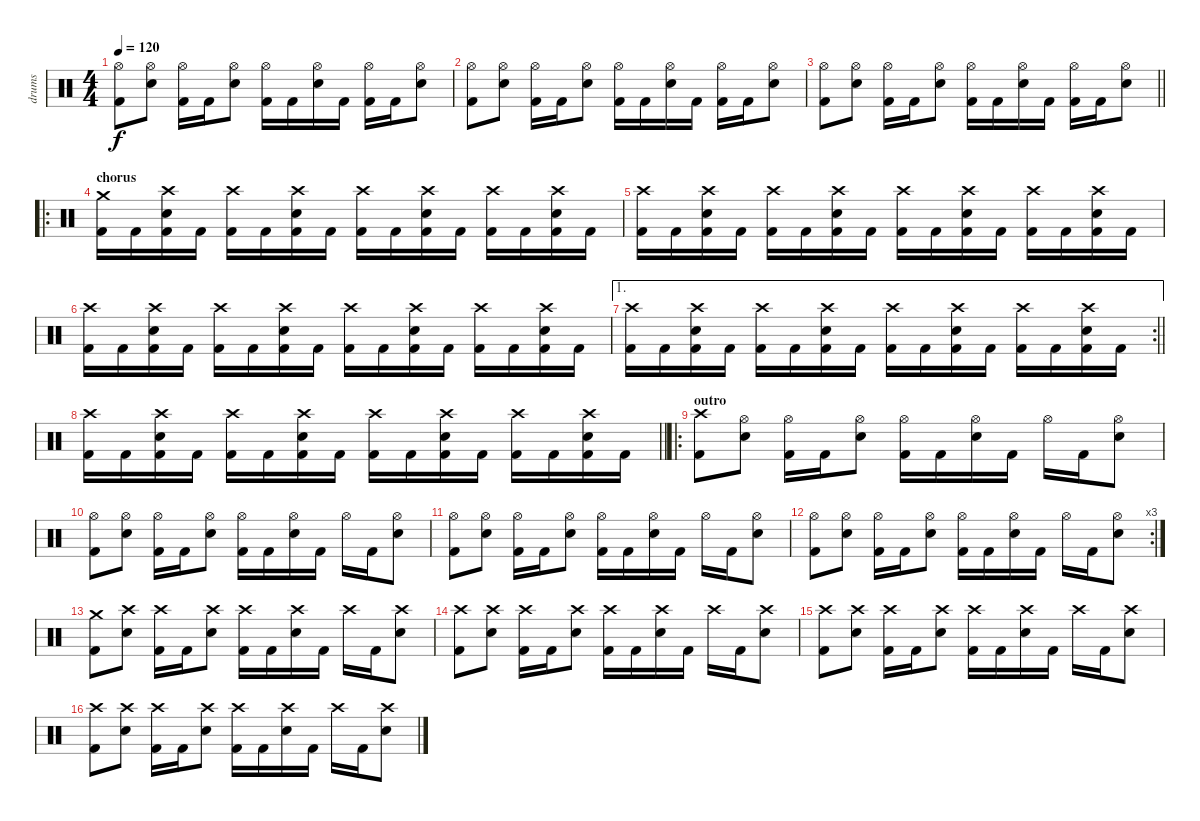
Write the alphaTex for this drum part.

\track ("drums" "drums") {instrument percussion}
\staff {score}
\articulation defaults
\ts (4 4)
\tempo 120
\clef neutral
\ks c
("Hi-Hat (open)" "Kick (hit) 2").8{dy f} ("Hi-Hat (open)" "Snare (hit) 2").8 ("Hi-Hat (open)" "Kick (hit) 2").16 "Kick (hit) 2".16 ("Hi-Hat (open)" "Snare (hit) 2").8 ("Hi-Hat (open)" "Kick (hit) 2").16 "Kick (hit) 2".16 ("Hi-Hat (open)" "Snare (hit) 2").16 "Kick (hit) 2".16 ("Hi-Hat (open)" "Kick (hit) 2").16 "Kick (hit) 2".16 ("Hi-Hat (open)" "Snare (hit) 2").8 |
("Hi-Hat (open)" "Kick (hit) 2").8 ("Hi-Hat (open)" "Snare (hit) 2").8 ("Hi-Hat (open)" "Kick (hit) 2").16 "Kick (hit) 2".16 ("Hi-Hat (open)" "Snare (hit) 2").8 ("Hi-Hat (open)" "Kick (hit) 2").16 "Kick (hit) 2".16 ("Hi-Hat (open)" "Snare (hit) 2").16 "Kick (hit) 2".16 ("Hi-Hat (open)" "Kick (hit) 2").16 "Kick (hit) 2".16 ("Hi-Hat (open)" "Snare (hit) 2").8 |
\barLineRight lightlight
("Hi-Hat (open)" "Kick (hit) 2").8 ("Hi-Hat (open)" "Snare (hit) 2").8 ("Hi-Hat (open)" "Kick (hit) 2").16 "Kick (hit) 2".16 ("Hi-Hat (open)" "Snare (hit) 2").8 ("Hi-Hat (open)" "Kick (hit) 2").16 "Kick (hit) 2".16 ("Hi-Hat (open)" "Snare (hit) 2").16 "Kick (hit) 2".16 ("Hi-Hat (open)" "Kick (hit) 2").16 "Kick (hit) 2".16 ("Hi-Hat (open)" "Snare (hit) 2").8 |
\ro
\section ("" "chorus")
("Crash medium (hit)" "Kick (hit) 2").16 "Kick (hit) 2".16 ("Crash high (hit)" "Snare (hit) 2" "Kick (hit) 2").16 "Kick (hit) 2".16 ("Crash high (hit)" "Kick (hit) 2").16 "Kick (hit) 2".16 ("Crash high (hit)" "Snare (hit) 2" "Kick (hit) 2").16 "Kick (hit) 2".16 ("Crash high (hit)" "Kick (hit) 2").16 "Kick (hit) 2".16 ("Crash high (hit)" "Snare (hit) 2" "Kick (hit) 2").16 "Kick (hit) 2".16 ("Crash high (hit)" "Kick (hit) 2").16 "Kick (hit) 2".16 ("Crash high (hit)" "Snare (hit) 2" "Kick (hit) 2").16 "Kick (hit) 2".16 |
("Crash high (hit)" "Kick (hit) 2").16 "Kick (hit) 2".16 ("Crash high (hit)" "Snare (hit) 2" "Kick (hit) 2").16 "Kick (hit) 2".16 ("Crash high (hit)" "Kick (hit) 2").16 "Kick (hit) 2".16 ("Crash high (hit)" "Snare (hit) 2" "Kick (hit) 2").16 "Kick (hit) 2".16 ("Crash high (hit)" "Kick (hit) 2").16 "Kick (hit) 2".16 ("Crash high (hit)" "Snare (hit) 2" "Kick (hit) 2").16 "Kick (hit) 2".16 ("Crash high (hit)" "Kick (hit) 2").16 "Kick (hit) 2".16 ("Crash high (hit)" "Snare (hit) 2" "Kick (hit) 2").16 "Kick (hit) 2".16 |
("Crash high (hit)" "Kick (hit) 2").16 "Kick (hit) 2".16 ("Crash high (hit)" "Snare (hit) 2" "Kick (hit) 2").16 "Kick (hit) 2".16 ("Crash high (hit)" "Kick (hit) 2").16 "Kick (hit) 2".16 ("Crash high (hit)" "Snare (hit) 2" "Kick (hit) 2").16 "Kick (hit) 2".16 ("Crash high (hit)" "Kick (hit) 2").16 "Kick (hit) 2".16 ("Crash high (hit)" "Snare (hit) 2" "Kick (hit) 2").16 "Kick (hit) 2".16 ("Crash high (hit)" "Kick (hit) 2").16 "Kick (hit) 2".16 ("Crash high (hit)" "Snare (hit) 2" "Kick (hit) 2").16 "Kick (hit) 2".16 |
\ae 1
\rc 2
\barLineRight lightlight
("Crash high (hit)" "Kick (hit) 2").16 "Kick (hit) 2".16 ("Crash high (hit)" "Snare (hit) 2" "Kick (hit) 2").16 "Kick (hit) 2".16 ("Crash high (hit)" "Kick (hit) 2").16 "Kick (hit) 2".16 ("Crash high (hit)" "Snare (hit) 2" "Kick (hit) 2").16 "Kick (hit) 2".16 ("Crash high (hit)" "Kick (hit) 2").16 "Kick (hit) 2".16 ("Crash high (hit)" "Snare (hit) 2" "Kick (hit) 2").16 "Kick (hit) 2".16 ("Crash high (hit)" "Kick (hit) 2").16 "Kick (hit) 2".16 ("Crash high (hit)" "Snare (hit) 2" "Kick (hit) 2").16 "Kick (hit) 2".16 |
\barLineRight lightlight
("Crash high (hit)" "Kick (hit) 2").16 "Kick (hit) 2".16 ("Crash high (hit)" "Snare (hit) 2" "Kick (hit) 2").16 "Kick (hit) 2".16 ("Crash high (hit)" "Kick (hit) 2").16 "Kick (hit) 2".16 ("Crash high (hit)" "Snare (hit) 2" "Kick (hit) 2").16 "Kick (hit) 2".16 ("Crash high (hit)" "Kick (hit) 2").16 "Kick (hit) 2".16 ("Crash high (hit)" "Snare (hit) 2" "Kick (hit) 2").16 "Kick (hit) 2".16 ("Crash high (hit)" "Kick (hit) 2").16 "Kick (hit) 2".16 ("Crash high (hit)" "Snare (hit) 2" "Kick (hit) 2").16 "Kick (hit) 2".16 |
\ro
\section ("" "outro")
("Crash high (hit)" "Kick (hit) 2").8 ("Hi-Hat (open)" "Snare (hit) 2").8 ("Hi-Hat (open)" "Kick (hit) 2").16 "Kick (hit) 2".16 ("Hi-Hat (open)" "Snare (hit) 2").8 ("Hi-Hat (open)" "Kick (hit) 2").16 "Kick (hit) 2".16 ("Hi-Hat (open)" "Snare (hit) 2").16 "Kick (hit) 2".16 "Hi-Hat (open)".16 "Kick (hit) 2".16 ("Hi-Hat (open)" "Snare (hit) 2").8 |
("Hi-Hat (open)" "Kick (hit) 2").8 ("Hi-Hat (open)" "Snare (hit) 2").8 ("Hi-Hat (open)" "Kick (hit) 2").16 "Kick (hit) 2".16 ("Hi-Hat (open)" "Snare (hit) 2").8 ("Hi-Hat (open)" "Kick (hit) 2").16 "Kick (hit) 2".16 ("Hi-Hat (open)" "Snare (hit) 2").16 "Kick (hit) 2".16 "Hi-Hat (open)".16 "Kick (hit) 2".16 ("Hi-Hat (open)" "Snare (hit) 2").8 |
("Hi-Hat (open)" "Kick (hit) 2").8 ("Hi-Hat (open)" "Snare (hit) 2").8 ("Hi-Hat (open)" "Kick (hit) 2").16 "Kick (hit) 2".16 ("Hi-Hat (open)" "Snare (hit) 2").8 ("Hi-Hat (open)" "Kick (hit) 2").16 "Kick (hit) 2".16 ("Hi-Hat (open)" "Snare (hit) 2").16 "Kick (hit) 2".16 "Hi-Hat (open)".16 "Kick (hit) 2".16 ("Hi-Hat (open)" "Snare (hit) 2").8 |
\rc 3
("Hi-Hat (open)" "Kick (hit) 2").8 ("Hi-Hat (open)" "Snare (hit) 2").8 ("Hi-Hat (open)" "Kick (hit) 2").16 "Kick (hit) 2".16 ("Hi-Hat (open)" "Snare (hit) 2").8 ("Hi-Hat (open)" "Kick (hit) 2").16 "Kick (hit) 2".16 ("Hi-Hat (open)" "Snare (hit) 2").16 "Kick (hit) 2".16 "Hi-Hat (open)".16 "Kick (hit) 2".16 ("Hi-Hat (open)" "Snare (hit) 2").8 |
("Crash medium (hit)" "Kick (hit) 2").8 ("Crash high (hit)" "Snare (hit) 2").8 ("Crash high (hit)" "Kick (hit) 2").16 "Kick (hit) 2".16 ("Crash high (hit)" "Snare (hit) 2").8 ("Crash high (hit)" "Kick (hit) 2").16 "Kick (hit) 2".16 ("Crash high (hit)" "Snare (hit) 2").16 "Kick (hit) 2".16 "Crash high (hit)".16 "Kick (hit) 2".16 ("Crash high (hit)" "Snare (hit) 2").8 |
("Crash high (hit)" "Kick (hit) 2").8 ("Crash high (hit)" "Snare (hit) 2").8 ("Crash high (hit)" "Kick (hit) 2").16 "Kick (hit) 2".16 ("Crash high (hit)" "Snare (hit) 2").8 ("Crash high (hit)" "Kick (hit) 2").16 "Kick (hit) 2".16 ("Crash high (hit)" "Snare (hit) 2").16 "Kick (hit) 2".16 "Crash high (hit)".16 "Kick (hit) 2".16 ("Crash high (hit)" "Snare (hit) 2").8 |
("Crash high (hit)" "Kick (hit) 2").8 ("Crash high (hit)" "Snare (hit) 2").8 ("Crash high (hit)" "Kick (hit) 2").16 "Kick (hit) 2".16 ("Crash high (hit)" "Snare (hit) 2").8 ("Crash high (hit)" "Kick (hit) 2").16 "Kick (hit) 2".16 ("Crash high (hit)" "Snare (hit) 2").16 "Kick (hit) 2".16 "Crash high (hit)".16 "Kick (hit) 2".16 ("Crash high (hit)" "Snare (hit) 2").8 |
("Crash high (hit)" "Kick (hit) 2").8 ("Crash high (hit)" "Snare (hit) 2").8 ("Crash high (hit)" "Kick (hit) 2").16 "Kick (hit) 2".16 ("Crash high (hit)" "Snare (hit) 2").8 ("Crash high (hit)" "Kick (hit) 2").16 "Kick (hit) 2".16 ("Crash high (hit)" "Snare (hit) 2").16 "Kick (hit) 2".16 "Crash high (hit)".16 "Kick (hit) 2".16 ("Crash high (hit)" "Snare (hit) 2").8
